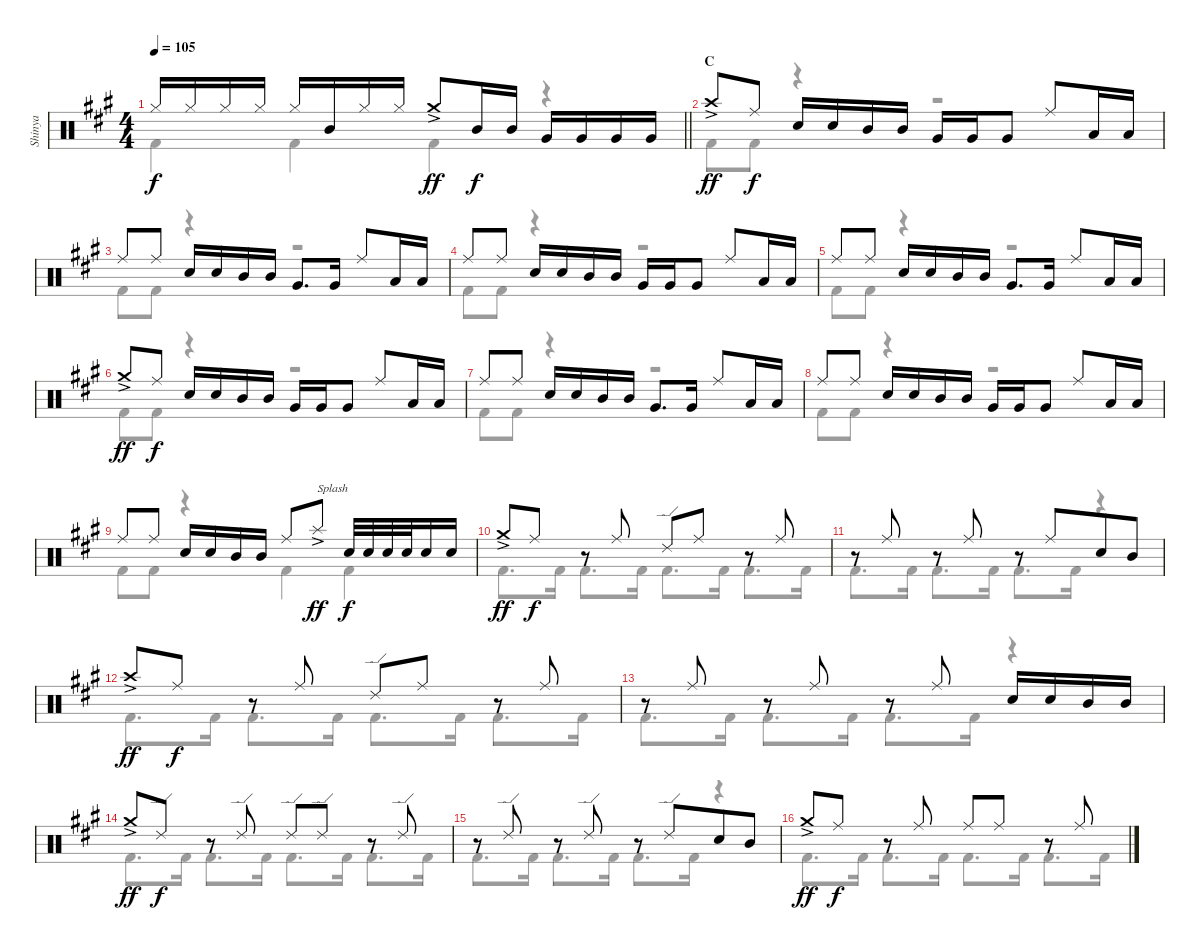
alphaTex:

\track ("Shinya" "Shinya") {instrument percussion}
\staff {score}
\articulation defaults
\voice
\ts (4 4)
\tempo 105
\clef neutral
\barLineRight lightlight
\ks f#minor "Hi-Hat (closed)".16{dy f} "Hi-Hat (closed)".16 "Hi-Hat (closed)".16 "Hi-Hat (closed)".16 "Hi-Hat (closed)".16 "Mid Tom (hit)".16 "Hi-Hat (closed)".16 "Hi-Hat (closed)".16 "Crash medium (hit)"{ac}.8{dy ff} "Mid Tom (hit)".16{dy f} "Mid Tom (hit)".16 "Very Low Tom (hit)".16 "Very Low Tom (hit)".16 "Very Low Tom (hit)".16 "Very Low Tom (hit)".16
|
\section ("" "C")
"Crash high (hit)"{ac}.8{dy ff} "Ride (middle)".8{dy f} "Snare (hit) 2".16 "Snare (hit) 2".16 "Mid Tom (hit)".16 "Mid Tom (hit)".16 "Very Low Tom (hit)".16 "Very Low Tom (hit)".16 "Very Low Tom (hit)".8 "Ride (middle)".8 "Low Floor Tom (hit)".16 "Low Floor Tom (hit)".16 |
"Ride (middle)".8 "Ride (middle)".8 "Snare (hit) 2".16 "Snare (hit) 2".16 "Mid Tom (hit)".16 "Mid Tom (hit)".16 "Very Low Tom (hit)".8{d} "Very Low Tom (hit)".16 "Ride (middle)".8 "Low Floor Tom (hit)".16 "Low Floor Tom (hit)".16 |
"Ride (middle)".8 "Ride (middle)".8 "Snare (hit) 2".16 "Snare (hit) 2".16 "Mid Tom (hit)".16 "Mid Tom (hit)".16 "Very Low Tom (hit)".16 "Very Low Tom (hit)".16 "Very Low Tom (hit)".8 "Ride (middle)".8 "Low Floor Tom (hit)".16 "Low Floor Tom (hit)".16 |
"Ride (middle)".8 "Ride (middle)".8 "Snare (hit) 2".16 "Snare (hit) 2".16 "Mid Tom (hit)".16 "Mid Tom (hit)".16 "Very Low Tom (hit)".8{d} "Very Low Tom (hit)".16 "Ride (middle)".8 "Low Floor Tom (hit)".16 "Low Floor Tom (hit)".16 |
"Crash medium (hit)"{ac}.8{dy ff} "Ride (middle)".8{dy f} "Snare (hit) 2".16 "Snare (hit) 2".16 "Mid Tom (hit)".16 "Mid Tom (hit)".16 "Very Low Tom (hit)".16 "Very Low Tom (hit)".16 "Very Low Tom (hit)".8 "Ride (middle)".8 "Low Floor Tom (hit)".16 "Low Floor Tom (hit)".16 |
"Ride (middle)".8 "Ride (middle)".8 "Snare (hit) 2".16 "Snare (hit) 2".16 "Mid Tom (hit)".16 "Mid Tom (hit)".16 "Very Low Tom (hit)".8{d} "Very Low Tom (hit)".16 "Ride (middle)".8 "Low Floor Tom (hit)".16 "Low Floor Tom (hit)".16 |
"Ride (middle)".8 "Ride (middle)".8 "Snare (hit) 2".16 "Snare (hit) 2".16 "Mid Tom (hit)".16 "Mid Tom (hit)".16 "Very Low Tom (hit)".16 "Very Low Tom (hit)".16 "Very Low Tom (hit)".8 "Ride (middle)".8 "Low Floor Tom (hit)".16 "Low Floor Tom (hit)".16 |
"Ride (middle)".8 "Ride (middle)".8 "Snare (hit) 2".16 "Snare (hit) 2".16 "Mid Tom (hit)".16 "Mid Tom (hit)".16 "Ride (middle)".8 "Splash (hit)"{ac}.8{txt "Splash" dy ff} "Snare (hit) 2".32{dy f} "Snare (hit) 2".32 "Snare (hit) 2".32 "Snare (hit) 2".32 "Snare (hit) 2".16 "Snare (hit) 2".16 |
"Crash medium (hit)"{ac}.8{dy ff} "Ride (middle)".8{dy f} r.8 "Ride (middle)".8 "Ride (edge) 2".8 "Ride (middle)".8 r.8 "Ride (middle)".8 |
r.8 "Ride (middle)".8 r.8 "Ride (middle)".8 r.8 "Ride (middle)".8{beam merge} "Snare (hit) 2".8 "Mid Tom (hit)".8 |
"Crash high (hit)"{ac}.8{dy ff} "Ride (middle)".8{dy f} r.8 "Ride (middle)".8 "Ride (edge) 2".8 "Ride (middle)".8 r.8 "Ride (middle)".8 |
r.8 "Ride (middle)".8 r.8 "Ride (middle)".8 r.8 "Ride (middle)".8 "Snare (hit) 2".16 "Snare (hit) 2".16 "Mid Tom (hit)".16 "Mid Tom (hit)".16 |
"Crash medium (hit)"{ac}.8{dy ff} "Ride (edge) 2".8{dy f} r.8 "Ride (edge) 2".8 "Ride (edge) 2".8 "Ride (edge) 2".8 r.8 "Ride (edge) 2".8 |
r.8 "Ride (edge) 2".8 r.8 "Ride (edge) 2".8 r.8 "Ride (edge) 2".8{beam merge} "Snare (hit) 2".8 "Mid Tom (hit)".8 |
"Crash medium (hit)"{ac}.8{dy ff} "Ride (middle)".8{dy f} r.8 "Ride (middle)".8 "Ride (middle)".8 "Ride (middle)".8 r.8 "Ride (middle)".8
\voice
\clef neutral
\ottava regular
\simile none
\barLineRight lightlight
\ks f#minor "Kick (hit) 2".4{dy f} "Kick (hit) 2".4 "Kick (hit) 2".4
r.4 |
"Kick (hit) 2".8 "Kick (hit) 2".8 r.4 r.2 |
"Kick (hit) 2".8 "Kick (hit) 2".8 r.4 r.2 |
"Kick (hit) 2".8 "Kick (hit) 2".8 r.4 r.2 |
"Kick (hit) 2".8 "Kick (hit) 2".8 r.4 r.2 |
"Kick (hit) 2".8 "Kick (hit) 2".8 r.4 r.2 |
"Kick (hit) 2".8 "Kick (hit) 2".8 r.4 r.2 |
"Kick (hit) 2".8 "Kick (hit) 2".8 r.4 r.2 |
"Kick (hit) 2".8 "Kick (hit) 2".8 r.4 "Kick (hit) 2".4 "Kick (hit) 2".4 |
"Kick (hit) 2".8{d} "Kick (hit) 2".16 "Kick (hit) 2".8{d} "Kick (hit) 2".16 "Kick (hit) 2".8{d} "Kick (hit) 2".16 "Kick (hit) 2".8{d} "Kick (hit) 2".16 |
"Kick (hit) 2".8{d} "Kick (hit) 2".16 "Kick (hit) 2".8{d} "Kick (hit) 2".16 "Kick (hit) 2".8{d} "Kick (hit) 2".16 r.4 |
"Kick (hit) 2".8{d} "Kick (hit) 2".16 "Kick (hit) 2".8{d} "Kick (hit) 2".16 "Kick (hit) 2".8{d} "Kick (hit) 2".16 "Kick (hit) 2".8{d} "Kick (hit) 2".16 |
"Kick (hit) 2".8{d} "Kick (hit) 2".16 "Kick (hit) 2".8{d} "Kick (hit) 2".16 "Kick (hit) 2".8{d} "Kick (hit) 2".16 r.4 |
"Kick (hit) 2".8{d} "Kick (hit) 2".16 "Kick (hit) 2".8{d} "Kick (hit) 2".16 "Kick (hit) 2".8{d} "Kick (hit) 2".16 "Kick (hit) 2".8{d} "Kick (hit) 2".16 |
"Kick (hit) 2".8{d} "Kick (hit) 2".16 "Kick (hit) 2".8{d} "Kick (hit) 2".16 "Kick (hit) 2".8{d} "Kick (hit) 2".16 r.4 |
"Kick (hit) 2".8{d} "Kick (hit) 2".16 "Kick (hit) 2".8{d} "Kick (hit) 2".16 "Kick (hit) 2".8{d} "Kick (hit) 2".16 "Kick (hit) 2".8{d} "Kick (hit) 2".16
